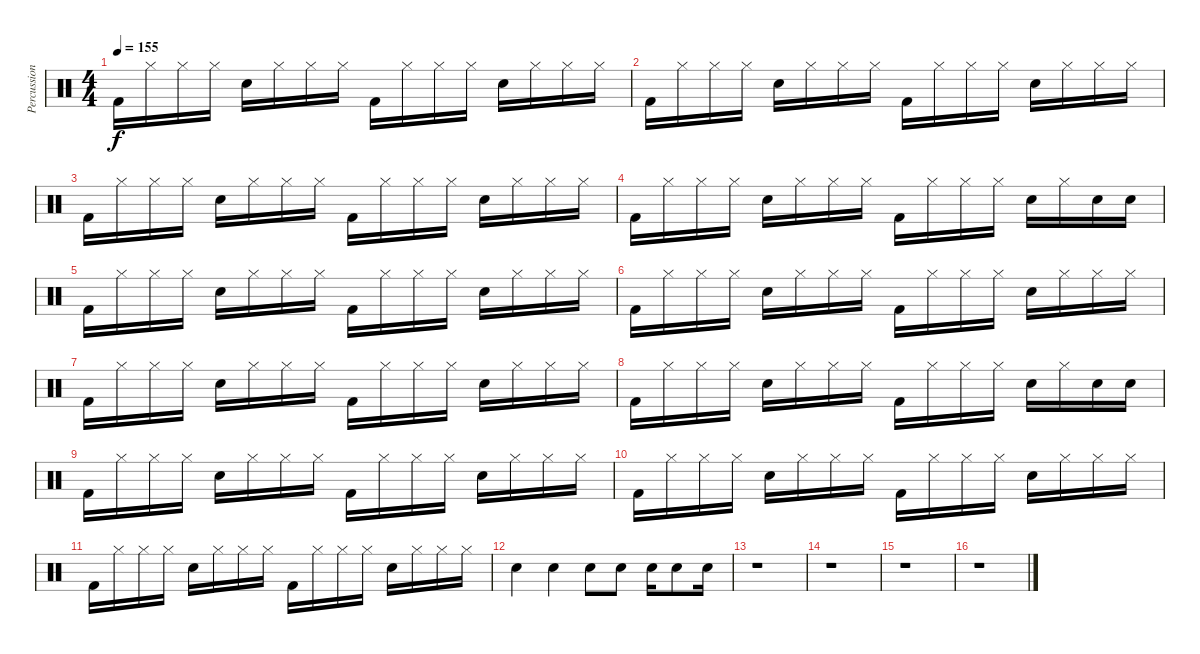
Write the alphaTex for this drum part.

\track ("Percussion" "Percussion") {instrument percussion}
\staff {score}
\articulation defaults
\ts (4 4)
\tempo 155
\clef neutral
\ks c "Kick (hit) 2".16{dy f} "Hi-Hat (closed)".16 "Hi-Hat (closed)".16 "Hi-Hat (closed)".16 "Snare (hit) 2".16 "Hi-Hat (closed)".16 "Hi-Hat (closed)".16 "Hi-Hat (closed)".16 "Kick (hit) 2".16 "Hi-Hat (closed)".16 "Hi-Hat (closed)".16 "Hi-Hat (closed)".16 "Snare (hit) 2".16 "Hi-Hat (closed)".16 "Hi-Hat (closed)".16 "Hi-Hat (closed)".16
|
"Kick (hit) 2".16 "Hi-Hat (closed)".16 "Hi-Hat (closed)".16 "Hi-Hat (closed)".16 "Snare (hit) 2".16 "Hi-Hat (closed)".16 "Hi-Hat (closed)".16 "Hi-Hat (closed)".16 "Kick (hit) 2".16 "Hi-Hat (closed)".16 "Hi-Hat (closed)".16 "Hi-Hat (closed)".16 "Snare (hit) 2".16 "Hi-Hat (closed)".16 "Hi-Hat (closed)".16 "Hi-Hat (closed)".16 |
"Kick (hit) 2".16 "Hi-Hat (closed)".16 "Hi-Hat (closed)".16 "Hi-Hat (closed)".16 "Snare (hit) 2".16 "Hi-Hat (closed)".16 "Hi-Hat (closed)".16 "Hi-Hat (closed)".16 "Kick (hit) 2".16 "Hi-Hat (closed)".16 "Hi-Hat (closed)".16 "Hi-Hat (closed)".16 "Snare (hit) 2".16 "Hi-Hat (closed)".16 "Hi-Hat (closed)".16 "Hi-Hat (closed)".16 |
"Kick (hit) 2".16 "Hi-Hat (closed)".16 "Hi-Hat (closed)".16 "Hi-Hat (closed)".16 "Snare (hit) 2".16 "Hi-Hat (closed)".16 "Hi-Hat (closed)".16 "Hi-Hat (closed)".16 "Kick (hit) 2".16 "Hi-Hat (closed)".16 "Hi-Hat (closed)".16 "Hi-Hat (closed)".16 "Snare (hit) 2".16 "Hi-Hat (closed)".16 "Snare (hit) 2".16 "Snare (hit) 2".16 |
"Kick (hit) 2".16 "Hi-Hat (closed)".16 "Hi-Hat (closed)".16 "Hi-Hat (closed)".16 "Snare (hit) 2".16 "Hi-Hat (closed)".16 "Hi-Hat (closed)".16 "Hi-Hat (closed)".16 "Kick (hit) 2".16 "Hi-Hat (closed)".16 "Hi-Hat (closed)".16 "Hi-Hat (closed)".16 "Snare (hit) 2".16 "Hi-Hat (closed)".16 "Hi-Hat (closed)".16 "Hi-Hat (closed)".16 |
"Kick (hit) 2".16 "Hi-Hat (closed)".16 "Hi-Hat (closed)".16 "Hi-Hat (closed)".16 "Snare (hit) 2".16 "Hi-Hat (closed)".16 "Hi-Hat (closed)".16 "Hi-Hat (closed)".16 "Kick (hit) 2".16 "Hi-Hat (closed)".16 "Hi-Hat (closed)".16 "Hi-Hat (closed)".16 "Snare (hit) 2".16 "Hi-Hat (closed)".16 "Hi-Hat (closed)".16 "Hi-Hat (closed)".16 |
"Kick (hit) 2".16 "Hi-Hat (closed)".16 "Hi-Hat (closed)".16 "Hi-Hat (closed)".16 "Snare (hit) 2".16 "Hi-Hat (closed)".16 "Hi-Hat (closed)".16 "Hi-Hat (closed)".16 "Kick (hit) 2".16 "Hi-Hat (closed)".16 "Hi-Hat (closed)".16 "Hi-Hat (closed)".16 "Snare (hit) 2".16 "Hi-Hat (closed)".16 "Hi-Hat (closed)".16 "Hi-Hat (closed)".16 |
"Kick (hit) 2".16 "Hi-Hat (closed)".16 "Hi-Hat (closed)".16 "Hi-Hat (closed)".16 "Snare (hit) 2".16 "Hi-Hat (closed)".16 "Hi-Hat (closed)".16 "Hi-Hat (closed)".16 "Kick (hit) 2".16 "Hi-Hat (closed)".16 "Hi-Hat (closed)".16 "Hi-Hat (closed)".16 "Snare (hit) 2".16 "Hi-Hat (closed)".16 "Snare (hit) 2".16 "Snare (hit) 2".16 |
"Kick (hit) 2".16 "Hi-Hat (closed)".16 "Hi-Hat (closed)".16 "Hi-Hat (closed)".16 "Snare (hit) 2".16 "Hi-Hat (closed)".16 "Hi-Hat (closed)".16 "Hi-Hat (closed)".16 "Kick (hit) 2".16 "Hi-Hat (closed)".16 "Hi-Hat (closed)".16 "Hi-Hat (closed)".16 "Snare (hit) 2".16 "Hi-Hat (closed)".16 "Hi-Hat (closed)".16 "Hi-Hat (closed)".16 |
"Kick (hit) 2".16 "Hi-Hat (closed)".16 "Hi-Hat (closed)".16 "Hi-Hat (closed)".16 "Snare (hit) 2".16 "Hi-Hat (closed)".16 "Hi-Hat (closed)".16 "Hi-Hat (closed)".16 "Kick (hit) 2".16 "Hi-Hat (closed)".16 "Hi-Hat (closed)".16 "Hi-Hat (closed)".16 "Snare (hit) 2".16 "Hi-Hat (closed)".16 "Hi-Hat (closed)".16 "Hi-Hat (closed)".16 |
"Kick (hit) 2".16 "Hi-Hat (closed)".16 "Hi-Hat (closed)".16 "Hi-Hat (closed)".16 "Snare (hit) 2".16 "Hi-Hat (closed)".16 "Hi-Hat (closed)".16 "Hi-Hat (closed)".16 "Kick (hit) 2".16 "Hi-Hat (closed)".16 "Hi-Hat (closed)".16 "Hi-Hat (closed)".16 "Snare (hit) 2".16 "Hi-Hat (closed)".16 "Hi-Hat (closed)".16 "Hi-Hat (closed)".16 |
"Snare (hit) 2".4 "Snare (hit) 2".4 "Snare (hit) 2".8 "Snare (hit) 2".8 "Snare (hit) 2".16 "Snare (hit) 2".8 "Snare (hit) 2".16 |
r.1 |
r.1 |
r.1 |
r.1
